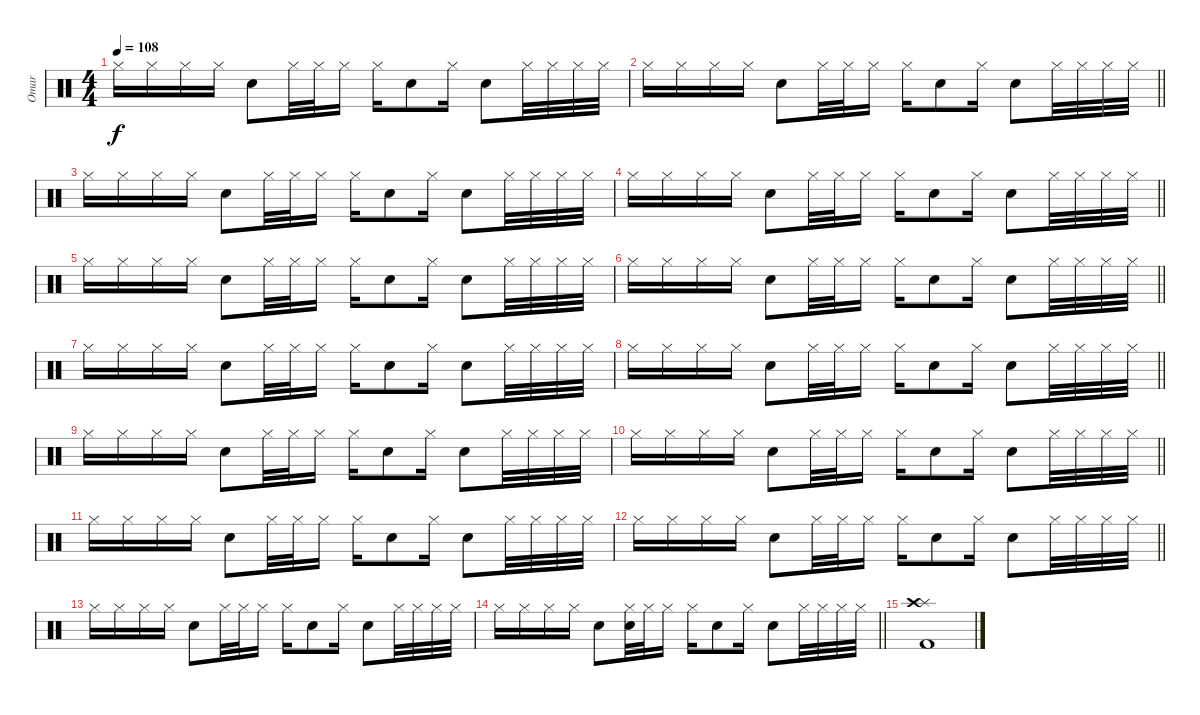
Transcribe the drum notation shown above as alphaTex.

\track ("Omar" "Omar") {instrument percussion}
\staff {score}
\articulation defaults
\ts (4 4)
\tempo 108
\clef neutral
\ks c "Hi-Hat (closed)".16{dy f} "Hi-Hat (closed)".16 "Hi-Hat (closed)".16 "Hi-Hat (closed)".16 "Snare (hit) 2".8 "Hi-Hat (closed)".32 "Hi-Hat (closed)".32 "Hi-Hat (closed)".16 "Hi-Hat (closed)".16 "Snare (hit) 2".8 "Hi-Hat (closed)".16 "Snare (hit) 2".8 "Hi-Hat (closed)".32 "Hi-Hat (closed)".32 "Hi-Hat (closed)".32 "Hi-Hat (closed)".32
|
\barLineRight lightlight "Hi-Hat (closed)".16 "Hi-Hat (closed)".16 "Hi-Hat (closed)".16 "Hi-Hat (closed)".16 "Snare (hit) 2".8 "Hi-Hat (closed)".32 "Hi-Hat (closed)".32 "Hi-Hat (closed)".16 "Hi-Hat (closed)".16 "Snare (hit) 2".8 "Hi-Hat (closed)".16 "Snare (hit) 2".8 "Hi-Hat (closed)".32 "Hi-Hat (closed)".32 "Hi-Hat (closed)".32 "Hi-Hat (closed)".32
|
"Hi-Hat (closed)".16 "Hi-Hat (closed)".16 "Hi-Hat (closed)".16 "Hi-Hat (closed)".16 "Snare (hit) 2".8 "Hi-Hat (closed)".32 "Hi-Hat (closed)".32 "Hi-Hat (closed)".16 "Hi-Hat (closed)".16 "Snare (hit) 2".8 "Hi-Hat (closed)".16 "Snare (hit) 2".8 "Hi-Hat (closed)".32 "Hi-Hat (closed)".32 "Hi-Hat (closed)".32 "Hi-Hat (closed)".32 |
\barLineRight lightlight "Hi-Hat (closed)".16 "Hi-Hat (closed)".16 "Hi-Hat (closed)".16 "Hi-Hat (closed)".16 "Snare (hit) 2".8 "Hi-Hat (closed)".32 "Hi-Hat (closed)".32 "Hi-Hat (closed)".16 "Hi-Hat (closed)".16 "Snare (hit) 2".8 "Hi-Hat (closed)".16 "Snare (hit) 2".8 "Hi-Hat (closed)".32 "Hi-Hat (closed)".32 "Hi-Hat (closed)".32 "Hi-Hat (closed)".32
|
"Hi-Hat (closed)".16 "Hi-Hat (closed)".16 "Hi-Hat (closed)".16 "Hi-Hat (closed)".16 "Snare (hit) 2".8 "Hi-Hat (closed)".32 "Hi-Hat (closed)".32 "Hi-Hat (closed)".16 "Hi-Hat (closed)".16 "Snare (hit) 2".8 "Hi-Hat (closed)".16 "Snare (hit) 2".8 "Hi-Hat (closed)".32 "Hi-Hat (closed)".32 "Hi-Hat (closed)".32 "Hi-Hat (closed)".32 |
\barLineRight lightlight "Hi-Hat (closed)".16 "Hi-Hat (closed)".16 "Hi-Hat (closed)".16 "Hi-Hat (closed)".16 "Snare (hit) 2".8 "Hi-Hat (closed)".32 "Hi-Hat (closed)".32 "Hi-Hat (closed)".16 "Hi-Hat (closed)".16 "Snare (hit) 2".8 "Hi-Hat (closed)".16 "Snare (hit) 2".8 "Hi-Hat (closed)".32 "Hi-Hat (closed)".32 "Hi-Hat (closed)".32 "Hi-Hat (closed)".32
|
"Hi-Hat (closed)".16 "Hi-Hat (closed)".16 "Hi-Hat (closed)".16 "Hi-Hat (closed)".16 "Snare (hit) 2".8 "Hi-Hat (closed)".32 "Hi-Hat (closed)".32 "Hi-Hat (closed)".16 "Hi-Hat (closed)".16 "Snare (hit) 2".8 "Hi-Hat (closed)".16 "Snare (hit) 2".8 "Hi-Hat (closed)".32 "Hi-Hat (closed)".32 "Hi-Hat (closed)".32 "Hi-Hat (closed)".32 |
\barLineRight lightlight "Hi-Hat (closed)".16 "Hi-Hat (closed)".16 "Hi-Hat (closed)".16 "Hi-Hat (closed)".16 "Snare (hit) 2".8 "Hi-Hat (closed)".32 "Hi-Hat (closed)".32 "Hi-Hat (closed)".16 "Hi-Hat (closed)".16 "Snare (hit) 2".8 "Hi-Hat (closed)".16 "Snare (hit) 2".8 "Hi-Hat (closed)".32 "Hi-Hat (closed)".32 "Hi-Hat (closed)".32 "Hi-Hat (closed)".32
|
"Hi-Hat (closed)".16 "Hi-Hat (closed)".16 "Hi-Hat (closed)".16 "Hi-Hat (closed)".16 "Snare (hit) 2".8 "Hi-Hat (closed)".32 "Hi-Hat (closed)".32 "Hi-Hat (closed)".16 "Hi-Hat (closed)".16 "Snare (hit) 2".8 "Hi-Hat (closed)".16 "Snare (hit) 2".8 "Hi-Hat (closed)".32 "Hi-Hat (closed)".32 "Hi-Hat (closed)".32 "Hi-Hat (closed)".32 |
\barLineRight lightlight "Hi-Hat (closed)".16 "Hi-Hat (closed)".16 "Hi-Hat (closed)".16 "Hi-Hat (closed)".16 "Snare (hit) 2".8 "Hi-Hat (closed)".32 "Hi-Hat (closed)".32 "Hi-Hat (closed)".16 "Hi-Hat (closed)".16 "Snare (hit) 2".8 "Hi-Hat (closed)".16 "Snare (hit) 2".8 "Hi-Hat (closed)".32 "Hi-Hat (closed)".32 "Hi-Hat (closed)".32 "Hi-Hat (closed)".32
|
"Hi-Hat (closed)".16 "Hi-Hat (closed)".16 "Hi-Hat (closed)".16 "Hi-Hat (closed)".16 "Snare (hit) 2".8 "Hi-Hat (closed)".32 "Hi-Hat (closed)".32 "Hi-Hat (closed)".16 "Hi-Hat (closed)".16 "Snare (hit) 2".8 "Hi-Hat (closed)".16 "Snare (hit) 2".8 "Hi-Hat (closed)".32 "Hi-Hat (closed)".32 "Hi-Hat (closed)".32 "Hi-Hat (closed)".32 |
\barLineRight lightlight "Hi-Hat (closed)".16 "Hi-Hat (closed)".16 "Hi-Hat (closed)".16 "Hi-Hat (closed)".16 "Snare (hit) 2".8 "Hi-Hat (closed)".32 "Hi-Hat (closed)".32 "Hi-Hat (closed)".16 "Hi-Hat (closed)".16 "Snare (hit) 2".8 "Hi-Hat (closed)".16 "Snare (hit) 2".8 "Hi-Hat (closed)".32 "Hi-Hat (closed)".32 "Hi-Hat (closed)".32 "Hi-Hat (closed)".32
|
"Hi-Hat (closed)".16 "Hi-Hat (closed)".16 "Hi-Hat (closed)".16 "Hi-Hat (closed)".16 "Snare (hit) 2".8 "Hi-Hat (closed)".32 "Hi-Hat (closed)".32 "Hi-Hat (closed)".16 "Hi-Hat (closed)".16 "Snare (hit) 2".8 "Hi-Hat (closed)".16 "Snare (hit) 2".8 "Hi-Hat (closed)".32 "Hi-Hat (closed)".32 "Hi-Hat (closed)".32 "Hi-Hat (closed)".32 |
\barLineRight lightlight "Hi-Hat (closed)".16 "Hi-Hat (closed)".16 "Hi-Hat (closed)".16 "Hi-Hat (closed)".16 "Snare (hit) 2".8
("Hi-Hat (closed)" "Snare (hit) 2").32 "Hi-Hat (closed)".32 "Hi-Hat (closed)".16 "Hi-Hat (closed)".16 "Snare (hit) 2".8 "Hi-Hat (closed)".16 "Snare (hit) 2".8 "Hi-Hat (closed)".32 "Hi-Hat (closed)".32 "Hi-Hat (closed)".32 "Hi-Hat (closed)".32 |
("Splash (hit)" "Crash high (hit)" "Kick (hit) 2").1
